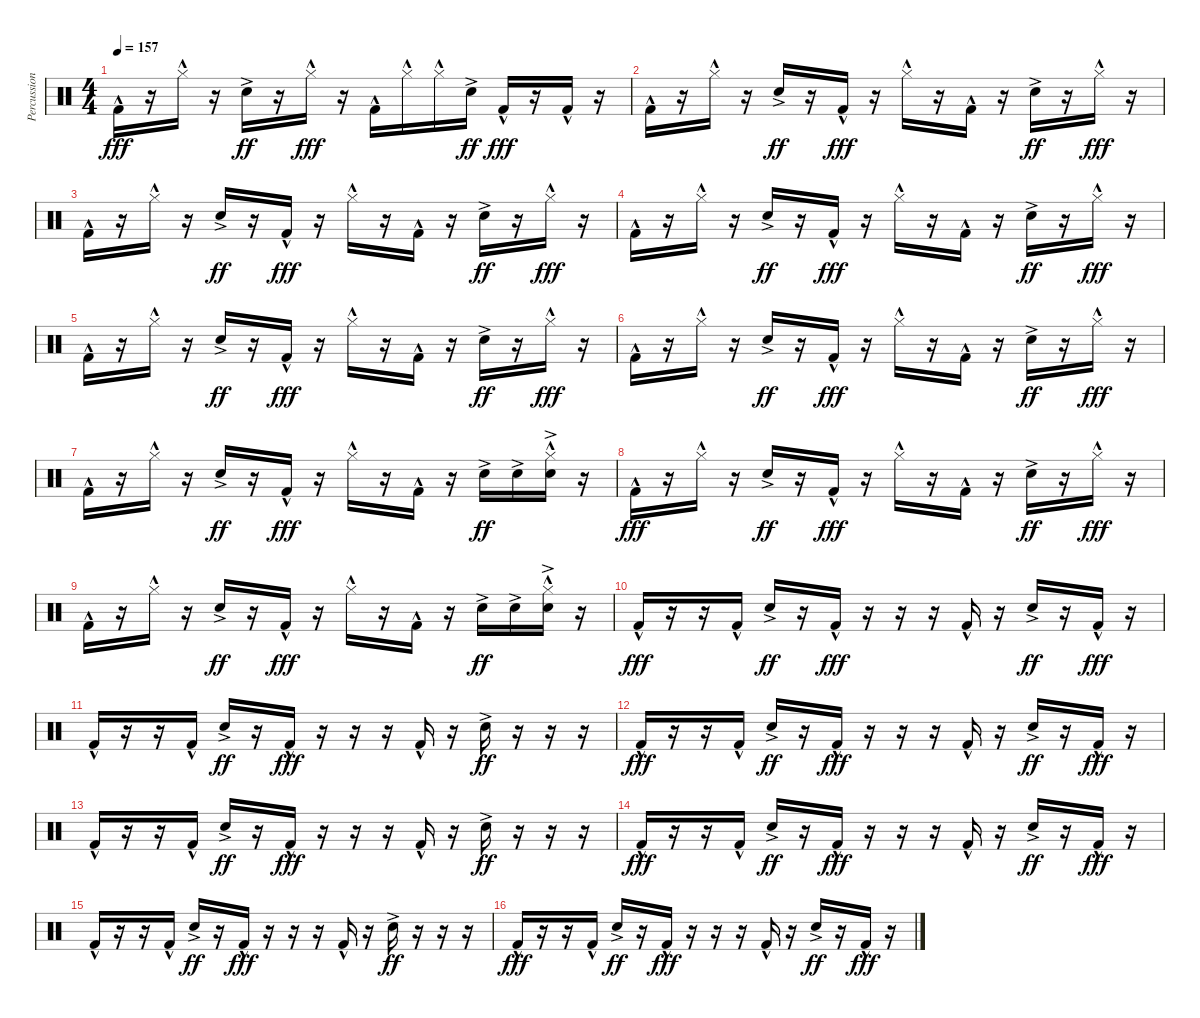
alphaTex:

\track ("Percussion" "Percussion") {instrument percussion}
\staff {score}
\articulation defaults
\ts (4 4)
\tempo 157
\clef neutral
\ks c "Kick (hit) 2"{hac}.16{dy fff}
r.16 "Hi-Hat (closed)"{hac}.16 r.16 "Snare (hit) 2"{ac}.16{dy ff} r.16 "Hi-Hat (closed)"{hac}.16{dy fff} r.16 "Kick (hit) 2"{hac}.16 "Hi-Hat (closed)"{hac}.16 "Hi-Hat (closed)"{hac}.16 "Snare (hit) 2"{ac}.16{dy ff} "Kick (hit) 2"{hac}.16{dy fff} r.16 "Kick (hit) 2"{hac}.16 r.16 |
"Kick (hit) 2"{hac}.16 r.16 "Hi-Hat (closed)"{hac}.16 r.16 "Snare (hit) 2"{ac}.16{dy ff} r.16 "Kick (hit) 2"{hac}.16{dy fff} r.16 "Hi-Hat (closed)"{hac}.16 r.16 "Kick (hit) 2"{hac}.16 r.16 "Snare (hit) 2"{ac}.16{dy ff} r.16 "Hi-Hat (closed)"{hac}.16{dy fff} r.16 |
"Kick (hit) 2"{hac}.16 r.16 "Hi-Hat (closed)"{hac}.16 r.16 "Snare (hit) 2"{ac}.16{dy ff} r.16 "Kick (hit) 2"{hac}.16{dy fff} r.16 "Hi-Hat (closed)"{hac}.16 r.16 "Kick (hit) 2"{hac}.16 r.16 "Snare (hit) 2"{ac}.16{dy ff} r.16 "Hi-Hat (closed)"{hac}.16{dy fff} r.16 |
"Kick (hit) 2"{hac}.16 r.16 "Hi-Hat (closed)"{hac}.16 r.16 "Snare (hit) 2"{ac}.16{dy ff} r.16 "Kick (hit) 2"{hac}.16{dy fff} r.16 "Hi-Hat (closed)"{hac}.16 r.16 "Kick (hit) 2"{hac}.16 r.16 "Snare (hit) 2"{ac}.16{dy ff} r.16 "Hi-Hat (closed)"{hac}.16{dy fff} r.16 |
"Kick (hit) 2"{hac}.16 r.16 "Hi-Hat (closed)"{hac}.16 r.16 "Snare (hit) 2"{ac}.16{dy ff} r.16 "Kick (hit) 2"{hac}.16{dy fff} r.16 "Hi-Hat (closed)"{hac}.16 r.16 "Kick (hit) 2"{hac}.16 r.16 "Snare (hit) 2"{ac}.16{dy ff} r.16 "Hi-Hat (closed)"{hac}.16{dy fff} r.16 |
"Kick (hit) 2"{hac}.16 r.16 "Hi-Hat (closed)"{hac}.16 r.16 "Snare (hit) 2"{ac}.16{dy ff} r.16 "Kick (hit) 2"{hac}.16{dy fff} r.16 "Hi-Hat (closed)"{hac}.16 r.16 "Kick (hit) 2"{hac}.16 r.16 "Snare (hit) 2"{ac}.16{dy ff} r.16 "Hi-Hat (closed)"{hac}.16{dy fff} r.16 |
"Kick (hit) 2"{hac}.16 r.16 "Hi-Hat (closed)"{hac}.16 r.16 "Snare (hit) 2"{ac}.16{dy ff} r.16 "Kick (hit) 2"{hac}.16{dy fff} r.16 "Hi-Hat (closed)"{hac}.16 r.16 "Kick (hit) 2"{hac}.16 r.16 "Snare (hit) 2"{ac}.16{dy ff} "Snare (hit) 2"{ac}.16 ("Hi-Hat (closed)"{hac} "Snare (hit) 2"{ac}).16 r.16 |
"Kick (hit) 2"{hac}.16{dy fff} r.16 "Hi-Hat (closed)"{hac}.16 r.16 "Snare (hit) 2"{ac}.16{dy ff} r.16 "Kick (hit) 2"{hac}.16{dy fff} r.16 "Hi-Hat (closed)"{hac}.16 r.16 "Kick (hit) 2"{hac}.16 r.16 "Snare (hit) 2"{ac}.16{dy ff} r.16 "Hi-Hat (closed)"{hac}.16{dy fff} r.16 |
"Kick (hit) 2"{hac}.16 r.16 "Hi-Hat (closed)"{hac}.16 r.16 "Snare (hit) 2"{ac}.16{dy ff} r.16 "Kick (hit) 2"{hac}.16{dy fff} r.16 "Hi-Hat (closed)"{hac}.16 r.16 "Kick (hit) 2"{hac}.16 r.16 "Snare (hit) 2"{ac}.16{dy ff} "Snare (hit) 2"{ac}.16 ("Hi-Hat (closed)"{hac} "Snare (hit) 2"{ac}).16 r.16 |
"Kick (hit) 2"{hac}.16{dy fff} r.16 r.16 "Kick (hit) 2"{hac}.16 "Snare (hit) 2"{ac}.16{dy ff} r.16 "Kick (hit) 2"{hac}.16{dy fff} r.16 r.16 r.16 "Kick (hit) 2"{hac}.16 r.16 "Snare (hit) 2"{ac}.16{dy ff} r.16 "Kick (hit) 2"{hac}.16{dy fff} r.16 |
"Kick (hit) 2"{hac}.16 r.16 r.16 "Kick (hit) 2"{hac}.16 "Snare (hit) 2"{ac}.16{dy ff} r.16 "Kick (hit) 2"{hac}.16{dy fff} r.16 r.16 r.16 "Kick (hit) 2"{hac}.16 r.16 "Snare (hit) 2"{ac}.16{dy ff} r.16 r.16 r.16 |
"Kick (hit) 2"{hac}.16{dy fff} r.16 r.16 "Kick (hit) 2"{hac}.16 "Snare (hit) 2"{ac}.16{dy ff} r.16 "Kick (hit) 2"{hac}.16{dy fff} r.16 r.16 r.16 "Kick (hit) 2"{hac}.16 r.16 "Snare (hit) 2"{ac}.16{dy ff} r.16 "Kick (hit) 2"{hac}.16{dy fff} r.16 |
"Kick (hit) 2"{hac}.16 r.16 r.16 "Kick (hit) 2"{hac}.16 "Snare (hit) 2"{ac}.16{dy ff} r.16 "Kick (hit) 2"{hac}.16{dy fff} r.16 r.16 r.16 "Kick (hit) 2"{hac}.16 r.16 "Snare (hit) 2"{ac}.16{dy ff} r.16 r.16 r.16 |
"Kick (hit) 2"{hac}.16{dy fff} r.16 r.16 "Kick (hit) 2"{hac}.16 "Snare (hit) 2"{ac}.16{dy ff} r.16 "Kick (hit) 2"{hac}.16{dy fff} r.16 r.16 r.16 "Kick (hit) 2"{hac}.16 r.16 "Snare (hit) 2"{ac}.16{dy ff} r.16 "Kick (hit) 2"{hac}.16{dy fff} r.16 |
"Kick (hit) 2"{hac}.16 r.16 r.16 "Kick (hit) 2"{hac}.16 "Snare (hit) 2"{ac}.16{dy ff} r.16 "Kick (hit) 2"{hac}.16{dy fff} r.16 r.16 r.16 "Kick (hit) 2"{hac}.16 r.16 "Snare (hit) 2"{ac}.16{dy ff} r.16 r.16 r.16 |
"Kick (hit) 2"{hac}.16{dy fff} r.16 r.16 "Kick (hit) 2"{hac}.16 "Snare (hit) 2"{ac}.16{dy ff} r.16 "Kick (hit) 2"{hac}.16{dy fff} r.16 r.16 r.16 "Kick (hit) 2"{hac}.16 r.16 "Snare (hit) 2"{ac}.16{dy ff} r.16 "Kick (hit) 2"{hac}.16{dy fff} r.16
